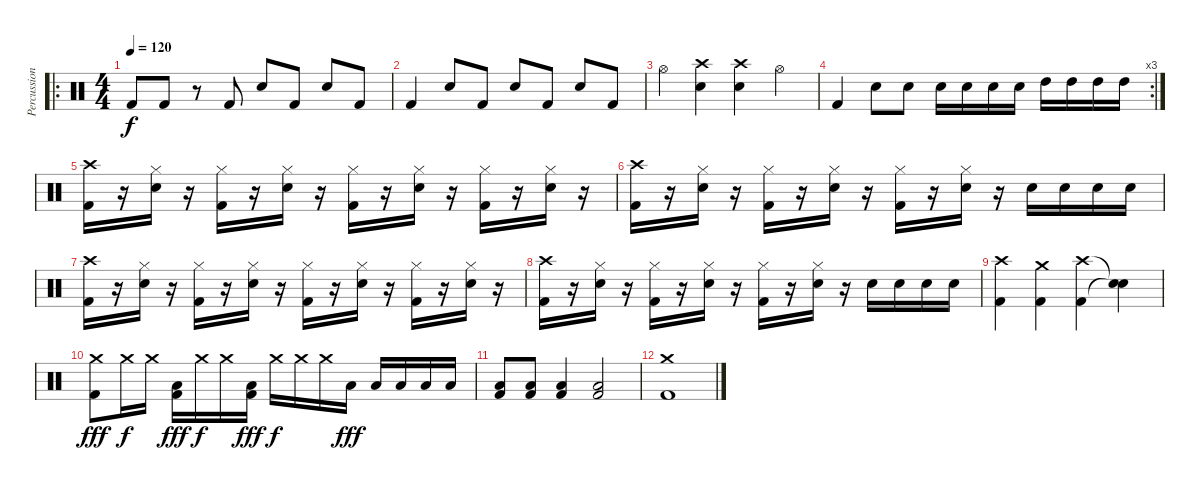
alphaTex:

\track ("Percussions" "Percussion") {instrument percussion}
\staff {score}
\articulation defaults
\ro
\ts (4 4)
\tempo 120
\clef neutral
\ks c "Kick (hit) 2".8{dy f} "Kick (hit) 2".8
r.8 "Kick (hit) 2".8 "Electric Snare (hit)".8 "Kick (hit) 2".8 "Electric Snare (hit)".8 "Kick (hit) 2".8 |
"Kick (hit) 2".4 "Electric Snare (hit)".8 "Kick (hit) 2".8 "Electric Snare (hit)".8 "Kick (hit) 2".8 "Electric Snare (hit)".8 "Kick (hit) 2".8 |
"Hi-Hat (open)".4 ("Crash high (hit)" "Electric Snare (hit)").4 ("Crash high (hit)" "Electric Snare (hit)").4 "Hi-Hat (open)".4 |
\rc 3 "Kick (hit) 2".4 "Electric Snare (hit)".8 "Electric Snare (hit)".8 "Electric Snare (hit)".16 "Electric Snare (hit)".16 "Electric Snare (hit)".16 "Electric Snare (hit)".16 "High Tom (hit)".16 "High Tom (hit)".16 "High Tom (hit)".16 "High Tom (hit)".16
|
("Crash high (hit)" "Kick (hit) 2").16 r.16 ("Hi-Hat (closed)" "Electric Snare (hit)").16 r.16 ("Hi-Hat (closed)" "Kick (hit) 2").16 r.16 ("Hi-Hat (closed)" "Electric Snare (hit)").16 r.16 ("Hi-Hat (closed)" "Kick (hit) 2").16 r.16 ("Hi-Hat (closed)" "Electric Snare (hit)").16 r.16 ("Hi-Hat (closed)" "Kick (hit) 2").16 r.16 ("Hi-Hat (closed)" "Electric Snare (hit)").16 r.16 |
("Crash high (hit)" "Kick (hit) 2").16 r.16 ("Hi-Hat (closed)" "Electric Snare (hit)").16 r.16 ("Hi-Hat (closed)" "Kick (hit) 2").16 r.16 ("Hi-Hat (closed)" "Electric Snare (hit)").16 r.16 ("Hi-Hat (closed)" "Kick (hit) 2").16 r.16 ("Hi-Hat (closed)" "Electric Snare (hit)").16 r.16 "Electric Snare (hit)".16 "Electric Snare (hit)".16 "Electric Snare (hit)".16 "Electric Snare (hit)".16 |
("Crash high (hit)" "Kick (hit) 2").16 r.16 ("Hi-Hat (closed)" "Electric Snare (hit)").16 r.16 ("Hi-Hat (closed)" "Kick (hit) 2").16 r.16 ("Hi-Hat (closed)" "Electric Snare (hit)").16 r.16 ("Hi-Hat (closed)" "Kick (hit) 2").16 r.16 ("Hi-Hat (closed)" "Electric Snare (hit)").16 r.16 ("Hi-Hat (closed)" "Kick (hit) 2").16 r.16 ("Hi-Hat (closed)" "Electric Snare (hit)").16 r.16 |
("Crash high (hit)" "Kick (hit) 2").16 r.16 ("Hi-Hat (closed)" "Electric Snare (hit)").16 r.16 ("Hi-Hat (closed)" "Kick (hit) 2").16 r.16 ("Hi-Hat (closed)" "Electric Snare (hit)").16 r.16 ("Hi-Hat (closed)" "Kick (hit) 2").16 r.16 ("Hi-Hat (closed)" "Electric Snare (hit)").16 r.16 "Electric Snare (hit)".16 "Electric Snare (hit)".16 "Electric Snare (hit)".16 "Electric Snare (hit)".16 |
("Crash high (hit)" "Kick (hit) 2").4 ("Crash medium (hit)" "Kick (hit) 2").4 ("Crash high (hit)" "Kick (hit) 2").4 ("Snare (hit)"{t} "Snare (hit)"{t}).4 |
("Crash medium (hit)" "Kick (hit) 2").8{dy fff} "Crash medium (hit)".16{dy f} "Crash medium (hit)".16 ("Low Tom (hit)" "Kick (hit) 2").16{dy fff} "Crash medium (hit)".16{dy f} "Crash medium (hit)".16 ("Low Tom (hit)" "Kick (hit) 2").16{dy fff} "Crash medium (hit)".16{dy f} "Crash medium (hit)".16 "Crash medium (hit)".16 "Low Tom (hit)".16{dy fff} "Low Tom (hit)".16 "Low Tom (hit)".16 "Low Tom (hit)".16 "Low Tom (hit)".16 |
("Low Tom (hit)" "Kick (hit) 2").8 ("Low Tom (hit)" "Kick (hit) 2").8 ("Low Tom (hit)" "Kick (hit) 2").4 ("Low Tom (hit)" "Kick (hit) 2").2 |
("Crash medium (hit)" "Kick (hit) 2").1
